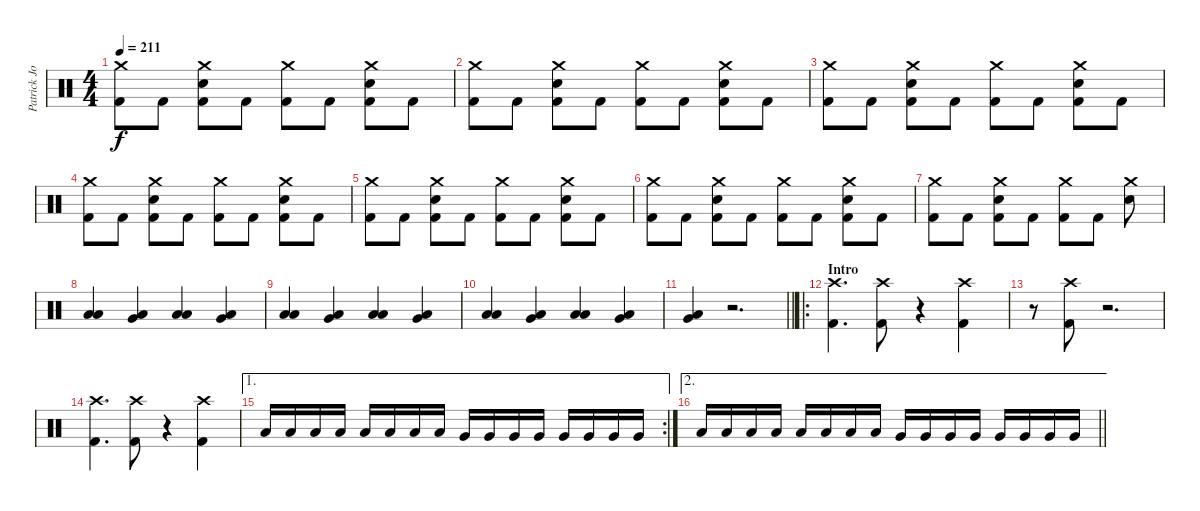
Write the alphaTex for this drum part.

\track ("Patrick Johansson" "Patrick Jo") {instrument percussion}
\staff {score}
\articulation defaults
\ts (4 4)
\tempo 211
\clef neutral
\ks c
("Crash medium (hit)" "Kick (hit) 2").8{dy f} "Kick (hit) 2".8 ("Crash medium (hit)" "Electric Snare (hit)" "Kick (hit) 2").8 "Kick (hit) 2".8 ("Crash medium (hit)" "Kick (hit) 2").8 "Kick (hit) 2".8 ("Crash medium (hit)" "Electric Snare (hit)" "Kick (hit) 2").8 "Kick (hit) 2".8 |
("Crash medium (hit)" "Kick (hit) 2").8 "Kick (hit) 2".8 ("Crash medium (hit)" "Electric Snare (hit)" "Kick (hit) 2").8 "Kick (hit) 2".8 ("Crash medium (hit)" "Kick (hit) 2").8 "Kick (hit) 2".8 ("Crash medium (hit)" "Electric Snare (hit)" "Kick (hit) 2").8 "Kick (hit) 2".8 |
("Crash medium (hit)" "Kick (hit) 2").8 "Kick (hit) 2".8 ("Crash medium (hit)" "Electric Snare (hit)" "Kick (hit) 2").8 "Kick (hit) 2".8 ("Crash medium (hit)" "Kick (hit) 2").8 "Kick (hit) 2".8 ("Crash medium (hit)" "Electric Snare (hit)" "Kick (hit) 2").8 "Kick (hit) 2".8 |
("Crash medium (hit)" "Kick (hit) 2").8 "Kick (hit) 2".8 ("Crash medium (hit)" "Electric Snare (hit)" "Kick (hit) 2").8 "Kick (hit) 2".8 ("Crash medium (hit)" "Kick (hit) 2").8 "Kick (hit) 2".8 ("Crash medium (hit)" "Electric Snare (hit)" "Kick (hit) 2").8 "Kick (hit) 2".8 |
("Crash medium (hit)" "Kick (hit) 2").8 "Kick (hit) 2".8 ("Crash medium (hit)" "Electric Snare (hit)" "Kick (hit) 2").8 "Kick (hit) 2".8 ("Crash medium (hit)" "Kick (hit) 2").8 "Kick (hit) 2".8 ("Crash medium (hit)" "Electric Snare (hit)" "Kick (hit) 2").8 "Kick (hit) 2".8 |
("Crash medium (hit)" "Kick (hit) 2").8 "Kick (hit) 2".8 ("Crash medium (hit)" "Electric Snare (hit)" "Kick (hit) 2").8 "Kick (hit) 2".8 ("Crash medium (hit)" "Kick (hit) 2").8 "Kick (hit) 2".8 ("Crash medium (hit)" "Electric Snare (hit)" "Kick (hit) 2").8 "Kick (hit) 2".8 |
("Crash medium (hit)" "Kick (hit) 2").8 "Kick (hit) 2".8 ("Crash medium (hit)" "Electric Snare (hit)" "Kick (hit) 2").8 "Kick (hit) 2".8 ("Crash medium (hit)" "Kick (hit) 2").8 "Kick (hit) 2".8 ("Crash medium (hit)" "Electric Snare (hit)").8 |
("Low Tom (hit)" "Low Floor Tom (hit)").4 ("Very Low Tom (hit)" "Low Floor Tom (hit)").4 ("Low Tom (hit)" "Low Floor Tom (hit)").4 ("Very Low Tom (hit)" "Low Floor Tom (hit)").4 |
("Low Tom (hit)" "Low Floor Tom (hit)").4 ("Very Low Tom (hit)" "Low Floor Tom (hit)").4 ("Low Tom (hit)" "Low Floor Tom (hit)").4 ("Very Low Tom (hit)" "Low Floor Tom (hit)").4 |
("Low Tom (hit)" "Low Floor Tom (hit)").4 ("Very Low Tom (hit)" "Low Floor Tom (hit)").4 ("Low Tom (hit)" "Low Floor Tom (hit)").4 ("Very Low Tom (hit)" "Low Floor Tom (hit)").4 |
\barLineRight lightlight
("Very Low Tom (hit)" "Low Floor Tom (hit)").4 r.2{d} |
\ro
\section ("" "Intro")
("Crash high (hit)" "Kick (hit) 2").4{d} ("Crash high (hit)" "Kick (hit) 2").8 r.4 ("Crash high (hit)" "Kick (hit) 2").4 |
r.8 ("Crash high (hit)" "Kick (hit) 2").8 r.2{d} |
("Crash high (hit)" "Kick (hit) 2").4{d} ("Crash high (hit)" "Kick (hit) 2").8 r.4 ("Crash high (hit)" "Kick (hit) 2").4 |
\ae 1
\rc 2 "Low Tom (hit)".16 "Low Tom (hit)".16 "Low Tom (hit)".16 "Low Tom (hit)".16 "Low Tom (hit)".16 "Low Tom (hit)".16 "Low Tom (hit)".16 "Low Tom (hit)".16 "Very Low Tom (hit)".16 "Very Low Tom (hit)".16 "Very Low Tom (hit)".16 "Very Low Tom (hit)".16 "Very Low Tom (hit)".16 "Very Low Tom (hit)".16 "Very Low Tom (hit)".16 "Very Low Tom (hit)".16
|
\ae 2
\barLineRight lightlight "Low Floor Tom (hit)".16 "Low Floor Tom (hit)".16 "Low Floor Tom (hit)".16 "Low Floor Tom (hit)".16 "Low Floor Tom (hit)".16 "Low Floor Tom (hit)".16 "Low Floor Tom (hit)".16 "Low Floor Tom (hit)".16 "Very Low Tom (hit)".16 "Very Low Tom (hit)".16 "Very Low Tom (hit)".16 "Very Low Tom (hit)".16 "Very Low Tom (hit)".16 "Very Low Tom (hit)".16 "Very Low Tom (hit)".16 "Very Low Tom (hit)".16
